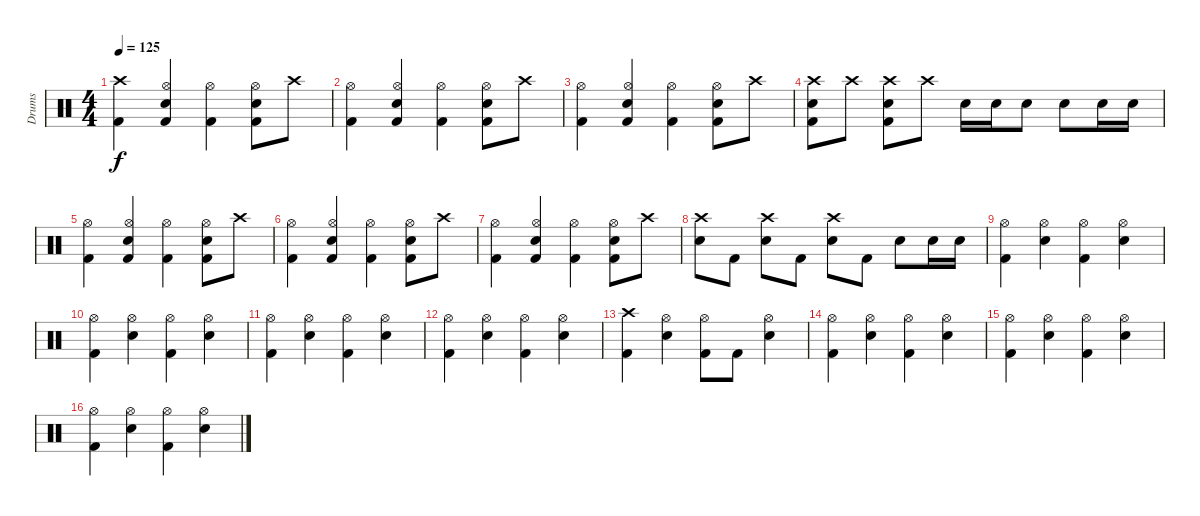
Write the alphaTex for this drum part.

\track ("Drums" "Drums") {instrument percussion}
\staff {score}
\articulation defaults
\ts (4 4)
\tempo 125
\clef neutral
\ks c
("Crash high (hit)" "Kick (hit) 2").4{dy f} ("Hi-Hat (open)" "Snare (hit) 2" "Kick (hit) 2").4 ("Hi-Hat (open)" "Kick (hit) 2").4 ("Hi-Hat (open)" "Snare (hit) 2" "Kick (hit) 2").8 "Crash high (hit)".8 |
("Hi-Hat (open)" "Kick (hit) 2").4 ("Hi-Hat (open)" "Snare (hit) 2" "Kick (hit) 2").4 ("Hi-Hat (open)" "Kick (hit) 2").4 ("Hi-Hat (open)" "Snare (hit) 2" "Kick (hit) 2").8 "Crash high (hit)".8 |
("Hi-Hat (open)" "Kick (hit) 2").4 ("Hi-Hat (open)" "Snare (hit) 2" "Kick (hit) 2").4 ("Hi-Hat (open)" "Kick (hit) 2").4 ("Hi-Hat (open)" "Snare (hit) 2" "Kick (hit) 2").8 "Crash high (hit)".8 |
("Crash high (hit)" "Snare (hit) 2" "Kick (hit) 2").8 "Crash high (hit)".8 ("Crash high (hit)" "Snare (hit) 2" "Kick (hit) 2").8 "Crash high (hit)".8 "Snare (hit) 2".16 "Snare (hit) 2".16 "Snare (hit) 2".8 "Snare (hit) 2".8 "Snare (hit) 2".16 "Snare (hit) 2".16 |
("Hi-Hat (open)" "Kick (hit) 2").4 ("Hi-Hat (open)" "Snare (hit) 2" "Kick (hit) 2").4 ("Hi-Hat (open)" "Kick (hit) 2").4 ("Hi-Hat (open)" "Snare (hit) 2" "Kick (hit) 2").8 "Crash high (hit)".8 |
("Hi-Hat (open)" "Kick (hit) 2").4 ("Hi-Hat (open)" "Snare (hit) 2" "Kick (hit) 2").4 ("Hi-Hat (open)" "Kick (hit) 2").4 ("Hi-Hat (open)" "Snare (hit) 2" "Kick (hit) 2").8 "Crash high (hit)".8 |
("Hi-Hat (open)" "Kick (hit) 2").4 ("Hi-Hat (open)" "Snare (hit) 2" "Kick (hit) 2").4 ("Hi-Hat (open)" "Kick (hit) 2").4 ("Hi-Hat (open)" "Snare (hit) 2" "Kick (hit) 2").8 "Crash high (hit)".8 |
("Crash high (hit)" "Snare (hit) 2").8 "Kick (hit) 2".8 ("Crash high (hit)" "Snare (hit) 2").8 "Kick (hit) 2".8 ("Crash high (hit)" "Snare (hit) 2").8 "Kick (hit) 2".8 "Snare (hit) 2".8 "Snare (hit) 2".16 "Snare (hit) 2".16 |
("Hi-Hat (open)" "Kick (hit) 2").4 ("Hi-Hat (open)" "Snare (hit) 2").4 ("Hi-Hat (open)" "Kick (hit) 2").4 ("Hi-Hat (open)" "Snare (hit) 2").4 |
("Hi-Hat (open)" "Kick (hit) 2").4 ("Hi-Hat (open)" "Snare (hit) 2").4 ("Hi-Hat (open)" "Kick (hit) 2").4 ("Hi-Hat (open)" "Snare (hit) 2").4 |
("Hi-Hat (open)" "Kick (hit) 2").4 ("Hi-Hat (open)" "Snare (hit) 2").4 ("Hi-Hat (open)" "Kick (hit) 2").4 ("Hi-Hat (open)" "Snare (hit) 2").4 |
("Hi-Hat (open)" "Kick (hit) 2").4 ("Hi-Hat (open)" "Snare (hit) 2").4 ("Hi-Hat (open)" "Kick (hit) 2").4 ("Hi-Hat (open)" "Snare (hit) 2").4 |
("Crash high (hit)" "Kick (hit) 2").4 ("Hi-Hat (open)" "Snare (hit) 2").4 ("Hi-Hat (open)" "Kick (hit) 2").8 "Kick (hit) 2".8 ("Hi-Hat (open)" "Snare (hit) 2").4 |
("Hi-Hat (open)" "Kick (hit) 2").4 ("Hi-Hat (open)" "Snare (hit) 2").4 ("Hi-Hat (open)" "Kick (hit) 2").4 ("Hi-Hat (open)" "Snare (hit) 2").4 |
("Hi-Hat (open)" "Kick (hit) 2").4 ("Hi-Hat (open)" "Snare (hit) 2").4 ("Hi-Hat (open)" "Kick (hit) 2").4 ("Hi-Hat (open)" "Snare (hit) 2").4 |
("Hi-Hat (open)" "Kick (hit) 2").4 ("Hi-Hat (open)" "Snare (hit) 2").4 ("Hi-Hat (open)" "Kick (hit) 2").4 ("Hi-Hat (open)" "Snare (hit) 2").4
